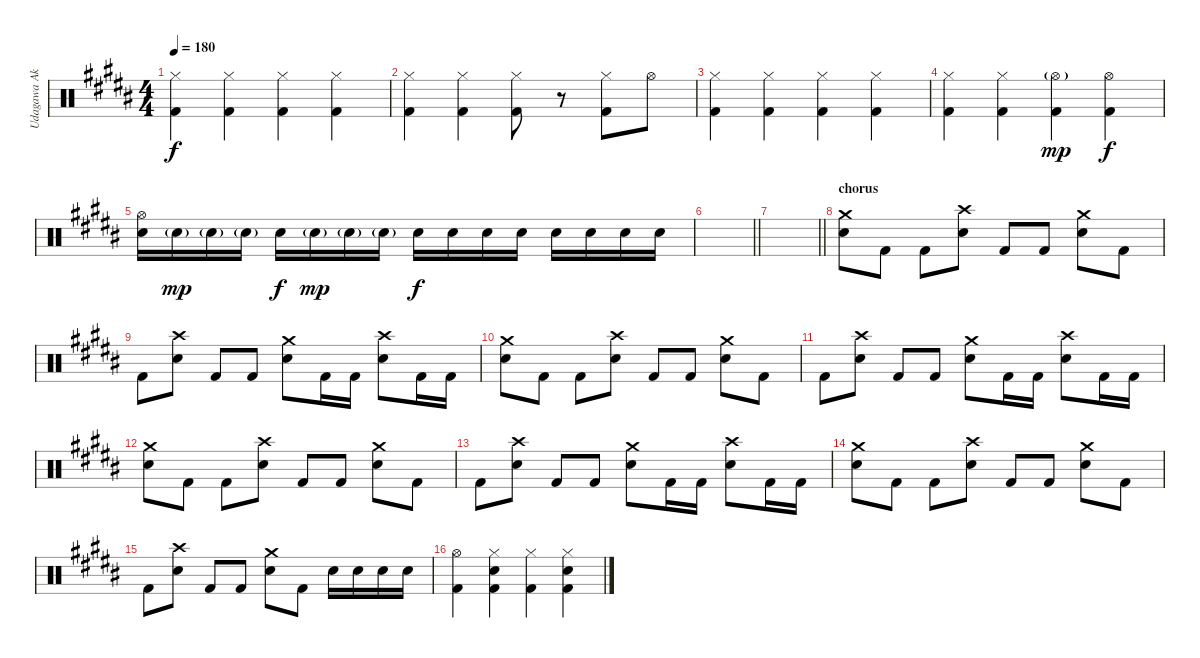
\track ("Udagawa Ako" "Udagawa Ak") {instrument percussion}
\staff {score}
\articulation defaults
\ts (4 4)
\tempo 180
\clef neutral
\ks b
("Hi-Hat (closed)" "Kick (hit) 2").4{dy f} ("Hi-Hat (closed)" "Kick (hit) 2").4 ("Hi-Hat (closed)" "Kick (hit) 2").4 ("Hi-Hat (closed)" "Kick (hit) 2").4 |
("Hi-Hat (closed)" "Kick (hit) 2").4 ("Hi-Hat (closed)" "Kick (hit) 2").4 ("Hi-Hat (closed)" "Kick (hit) 2").8 r.8 ("Hi-Hat (closed)" "Kick (hit) 2").8 "Hi-Hat (open)".8 |
("Hi-Hat (closed)" "Kick (hit) 2").4 ("Hi-Hat (closed)" "Kick (hit) 2").4 ("Hi-Hat (closed)" "Kick (hit) 2").4 ("Hi-Hat (closed)" "Kick (hit) 2").4 |
("Hi-Hat (closed)" "Kick (hit) 2").4 ("Hi-Hat (closed)" "Kick (hit) 2").4 ("Hi-Hat (open)"{g} "Kick (hit) 2").4{dy mp} ("Hi-Hat (open)" "Kick (hit) 2").4{dy f} |
("Hi-Hat (open)" "Electric Snare (hit)").16 "Electric Snare (hit)"{g}.16{dy mp} "Electric Snare (hit)"{g}.16 "Electric Snare (hit)"{g}.16 "Electric Snare (hit)".16{dy f} "Electric Snare (hit)"{g}.16{dy mp} "Electric Snare (hit)"{g}.16 "Electric Snare (hit)"{g}.16 "Electric Snare (hit)".16{dy f} "Electric Snare (hit)".16 "Electric Snare (hit)".16 "Electric Snare (hit)".16 "Electric Snare (hit)".16 "Electric Snare (hit)".16 "Electric Snare (hit)".16 "Electric Snare (hit)".16 |
\barLineRight lightlight
|
\barLineRight lightlight
|
\section ("" "chorus")
("Crash medium (hit)" "Electric Snare (hit)").8 "Kick (hit) 2".8 "Kick (hit) 2".8 ("Crash high (hit)" "Electric Snare (hit)").8 "Kick (hit) 2".8 "Kick (hit) 2".8 ("Crash medium (hit)" "Electric Snare (hit)").8 "Kick (hit) 2".8 |
"Kick (hit) 2".8 ("Crash high (hit)" "Electric Snare (hit)").8 "Kick (hit) 2".8 "Kick (hit) 2".8 ("Crash medium (hit)" "Electric Snare (hit)").8 "Kick (hit) 2".16 "Kick (hit) 2".16 ("Crash high (hit)" "Electric Snare (hit)").8 "Kick (hit) 2".16 "Kick (hit) 2".16 |
("Crash medium (hit)" "Electric Snare (hit)").8 "Kick (hit) 2".8 "Kick (hit) 2".8 ("Crash high (hit)" "Electric Snare (hit)").8 "Kick (hit) 2".8 "Kick (hit) 2".8 ("Crash medium (hit)" "Electric Snare (hit)").8 "Kick (hit) 2".8 |
"Kick (hit) 2".8 ("Crash high (hit)" "Electric Snare (hit)").8 "Kick (hit) 2".8 "Kick (hit) 2".8 ("Crash medium (hit)" "Electric Snare (hit)").8 "Kick (hit) 2".16 "Kick (hit) 2".16 ("Crash high (hit)" "Electric Snare (hit)").8 "Kick (hit) 2".16 "Kick (hit) 2".16 |
("Crash medium (hit)" "Electric Snare (hit)").8 "Kick (hit) 2".8 "Kick (hit) 2".8 ("Crash high (hit)" "Electric Snare (hit)").8 "Kick (hit) 2".8 "Kick (hit) 2".8 ("Crash medium (hit)" "Electric Snare (hit)").8 "Kick (hit) 2".8 |
"Kick (hit) 2".8 ("Crash high (hit)" "Electric Snare (hit)").8 "Kick (hit) 2".8 "Kick (hit) 2".8 ("Crash medium (hit)" "Electric Snare (hit)").8 "Kick (hit) 2".16 "Kick (hit) 2".16 ("Crash high (hit)" "Electric Snare (hit)").8 "Kick (hit) 2".16 "Kick (hit) 2".16 |
("Crash medium (hit)" "Electric Snare (hit)").8 "Kick (hit) 2".8 "Kick (hit) 2".8 ("Crash high (hit)" "Electric Snare (hit)").8 "Kick (hit) 2".8 "Kick (hit) 2".8 ("Crash medium (hit)" "Electric Snare (hit)").8 "Kick (hit) 2".8 |
"Kick (hit) 2".8 ("Crash high (hit)" "Electric Snare (hit)").8 "Kick (hit) 2".8 "Kick (hit) 2".8 ("Crash medium (hit)" "Electric Snare (hit)").8 "Kick (hit) 2".8 "Electric Snare (hit)".16 "Electric Snare (hit)".16 "Electric Snare (hit)".16 "Electric Snare (hit)".16 |
("Hi-Hat (open)" "Kick (hit) 2").4 ("Hi-Hat (closed)" "Electric Snare (hit)" "Kick (hit) 2").4 ("Hi-Hat (closed)" "Kick (hit) 2").4 ("Hi-Hat (closed)" "Electric Snare (hit)" "Kick (hit) 2").4
